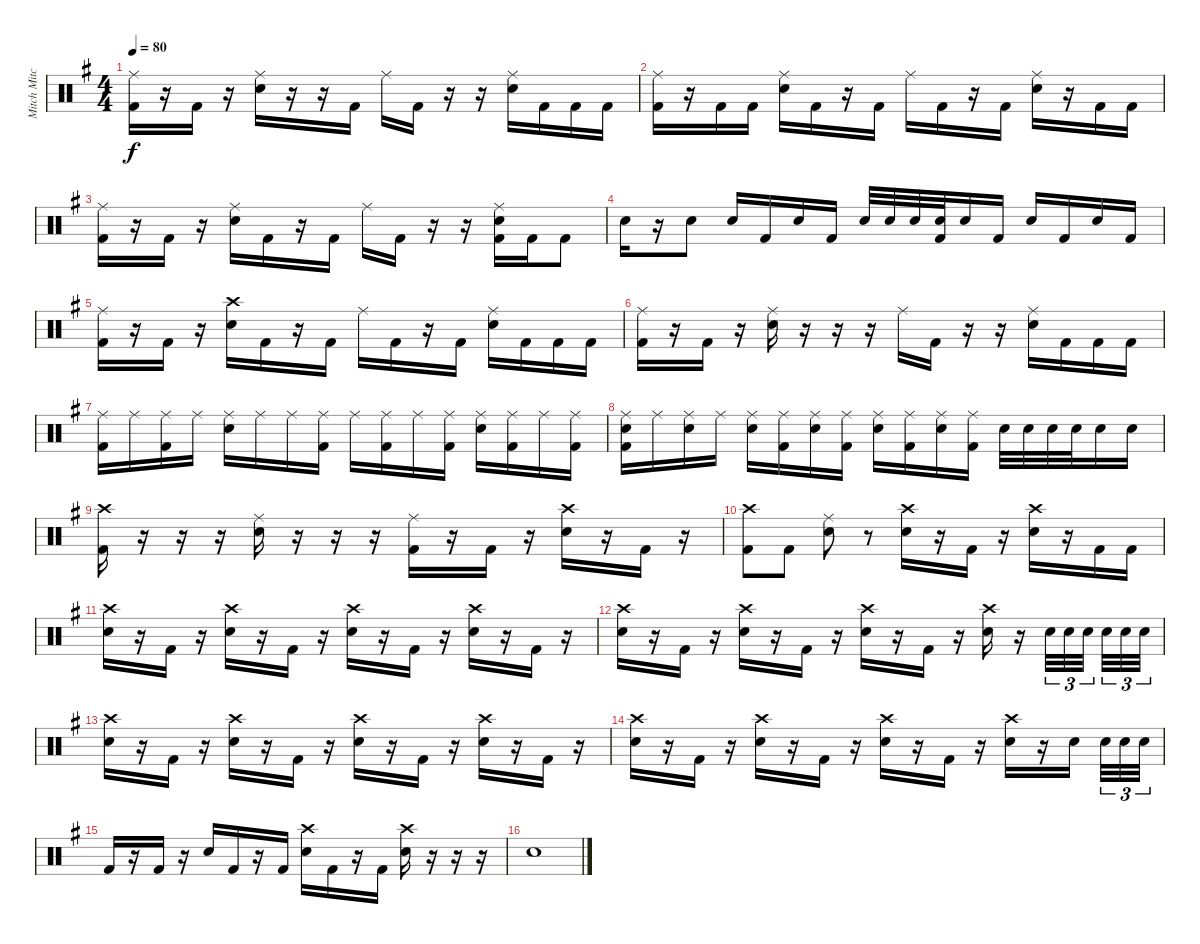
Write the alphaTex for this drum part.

\track ("Mitch Mitchell" "Mitch Mitc") {instrument percussion}
\staff {score}
\articulation defaults
\ts (4 4)
\tempo 80
\clef neutral
\ks eminor
("Ride (middle)" "Kick (hit) 2").16{dy f} r.16 "Kick (hit) 2".16 r.16 ("Ride (middle)" "Electric Snare (hit)").16 r.16 r.16 "Kick (hit) 2".16 "Ride (middle)".16 "Kick (hit) 2".16 r.16 r.16 ("Ride (middle)" "Electric Snare (hit)").16 "Kick (hit) 2".16 "Kick (hit) 2".16 "Kick (hit) 2".16 |
("Ride (middle)" "Kick (hit) 2").16 r.16 "Kick (hit) 2".16 "Kick (hit) 2".16 ("Ride (middle)" "Electric Snare (hit)").16 "Kick (hit) 2".16 r.16 "Kick (hit) 2".16 "Ride (middle)".16 "Kick (hit) 2".16 r.16 "Kick (hit) 2".16 ("Ride (middle)" "Electric Snare (hit)").16 r.16 "Kick (hit) 2".16 "Kick (hit) 2".16 |
("Ride (middle)" "Kick (hit) 2").16 r.16 "Kick (hit) 2".16 r.16 ("Ride (middle)" "Electric Snare (hit)").16 "Kick (hit) 2".16 r.16 "Kick (hit) 2".16 "Ride (middle)".16 "Kick (hit) 2".16 r.16 r.16 ("Ride (middle)" "Electric Snare (hit)" "Kick (hit) 2").16 "Kick (hit) 2".16 "Kick (hit) 2".8 |
"Electric Snare (hit)".16 r.16 "Electric Snare (hit)".8 "Electric Snare (hit)".16 "Kick (hit) 2".16 "Electric Snare (hit)".16 "Kick (hit) 2".16 "Electric Snare (hit)".32 "Electric Snare (hit)".32 "Electric Snare (hit)".32 ("Electric Snare (hit)" "Kick (hit) 2").32 "Electric Snare (hit)".16 "Kick (hit) 2".16 "Electric Snare (hit)".16 "Kick (hit) 2".16 "Electric Snare (hit)".16 "Kick (hit) 2".16 |
("Ride (middle)" "Kick (hit) 2").16 r.16 "Kick (hit) 2".16 r.16 ("Crash high (hit)" "Electric Snare (hit)").16 "Kick (hit) 2".16 r.16 "Kick (hit) 2".16 "Ride (middle)".16 "Kick (hit) 2".16 r.16 "Kick (hit) 2".16 ("Ride (middle)" "Electric Snare (hit)").16 "Kick (hit) 2".16 "Kick (hit) 2".16 "Kick (hit) 2".16 |
("Ride (middle)" "Kick (hit) 2").16 r.16 "Kick (hit) 2".16 r.16 ("Ride (middle)" "Electric Snare (hit)").16 r.16 r.16 r.16 "Ride (middle)".16 "Kick (hit) 2".16 r.16 r.16 ("Ride (middle)" "Electric Snare (hit)").16 "Kick (hit) 2".16 "Kick (hit) 2".16 "Kick (hit) 2".16 |
("Ride (middle)" "Kick (hit) 2").16 "Ride (middle)".16 ("Ride (middle)" "Kick (hit) 2").16 "Ride (middle)".16 ("Ride (middle)" "Electric Snare (hit)").16 "Ride (middle)".16 "Ride (middle)".16 ("Ride (middle)" "Kick (hit) 2").16 "Ride (middle)".16 ("Ride (middle)" "Kick (hit) 2").16 "Ride (middle)".16 ("Ride (middle)" "Kick (hit) 2").16 ("Ride (middle)" "Electric Snare (hit)").16 ("Ride (middle)" "Kick (hit) 2").16 "Ride (middle)".16 ("Ride (middle)" "Kick (hit) 2").16 |
("Ride (middle)" "Electric Snare (hit)" "Kick (hit) 2").16 "Ride (middle)".16 ("Ride (middle)" "Electric Snare (hit)").16 "Ride (middle)".16 ("Ride (middle)" "Electric Snare (hit)").16 ("Ride (middle)" "Kick (hit) 2").16 ("Ride (middle)" "Electric Snare (hit)").16 ("Ride (middle)" "Kick (hit) 2").16 ("Ride (middle)" "Electric Snare (hit)").16 ("Ride (middle)" "Kick (hit) 2").16 ("Ride (middle)" "Electric Snare (hit)").16 ("Ride (middle)" "Kick (hit) 2").16 "Electric Snare (hit)".32 "Electric Snare (hit)".32 "Electric Snare (hit)".32 "Electric Snare (hit)".32 "Electric Snare (hit)".16 "Electric Snare (hit)".16 |
("Crash high (hit)" "Kick (hit) 2").16 r.16 r.16 r.16 ("Ride (middle)" "Electric Snare (hit)").16 r.16 r.16 r.16 ("Ride (middle)" "Kick (hit) 2").16 r.16 "Kick (hit) 2".16 r.16 ("Crash high (hit)" "Electric Snare (hit)").16 r.16 "Kick (hit) 2".16 r.16 |
("Crash high (hit)" "Kick (hit) 2").8 "Kick (hit) 2".8 ("Ride (middle)" "Electric Snare (hit)").8 r.8 ("Crash high (hit)" "Electric Snare (hit)").16 r.16 "Kick (hit) 2".16 r.16 ("Crash high (hit)" "Electric Snare (hit)").16 r.16 "Kick (hit) 2".16 "Kick (hit) 2".16 |
("Crash high (hit)" "Electric Snare (hit)").16 r.16 "Kick (hit) 2".16 r.16 ("Crash high (hit)" "Electric Snare (hit)").16 r.16 "Kick (hit) 2".16 r.16 ("Crash high (hit)" "Electric Snare (hit)").16 r.16 "Kick (hit) 2".16 r.16 ("Crash high (hit)" "Electric Snare (hit)").16 r.16 "Kick (hit) 2".16 r.16 |
("Crash high (hit)" "Electric Snare (hit)").16 r.16 "Kick (hit) 2".16 r.16 ("Crash high (hit)" "Electric Snare (hit)").16 r.16 "Kick (hit) 2".16 r.16 ("Crash high (hit)" "Electric Snare (hit)").16 r.16 "Kick (hit) 2".16 r.16 ("Crash high (hit)" "Electric Snare (hit)").16 r.16 "Electric Snare (hit)".32{tu (3 2)} "Electric Snare (hit)".32{tu (3 2)} "Electric Snare (hit)".32{tu (3 2) beam splitsecondary} "Electric Snare (hit)".32{tu (3 2)} "Electric Snare (hit)".32{tu (3 2)} "Electric Snare (hit)".32{tu (3 2)} |
("Crash high (hit)" "Electric Snare (hit)").16 r.16 "Kick (hit) 2".16 r.16 ("Crash high (hit)" "Electric Snare (hit)").16 r.16 "Kick (hit) 2".16 r.16 ("Crash high (hit)" "Electric Snare (hit)").16 r.16 "Kick (hit) 2".16 r.16 ("Crash high (hit)" "Electric Snare (hit)").16 r.16 "Kick (hit) 2".16 r.16 |
("Crash high (hit)" "Electric Snare (hit)").16 r.16 "Kick (hit) 2".16 r.16 ("Crash high (hit)" "Electric Snare (hit)").16 r.16 "Kick (hit) 2".16 r.16 ("Crash high (hit)" "Electric Snare (hit)").16 r.16 "Kick (hit) 2".16 r.16 ("Crash high (hit)" "Electric Snare (hit)").16 r.16 "Electric Snare (hit)".16{beam splitsecondary} "Electric Snare (hit)".32{tu (3 2)} "Electric Snare (hit)".32{tu (3 2)} "Electric Snare (hit)".32{tu (3 2)} |
"Kick (hit) 2".16 r.16 "Kick (hit) 2".16 r.16 "Electric Snare (hit)".16 "Kick (hit) 2".16 r.16 "Kick (hit) 2".16 ("Crash high (hit)" "Electric Snare (hit)").16 "Kick (hit) 2".16 r.16 "Kick (hit) 2".16 ("Crash high (hit)" "Electric Snare (hit)").16 r.16 r.16 r.16 |
"Electric Snare (hit)".1
